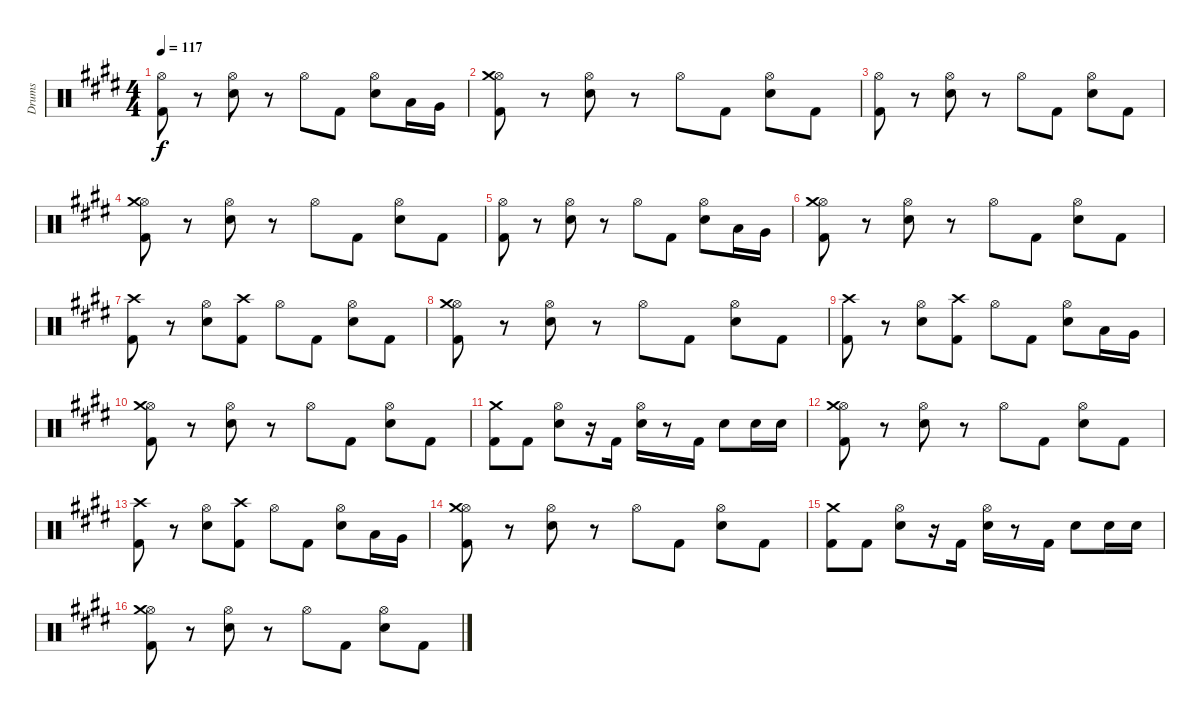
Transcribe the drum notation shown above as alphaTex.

\track ("Drums" "Drums") {instrument percussion}
\staff {score}
\articulation defaults
\ts (4 4)
\tempo 117
\clef neutral
\ks c#minor
("Hi-Hat (open)" "Kick (hit) 2").8{dy f} r.8 ("Hi-Hat (open)" "Snare (hit) 2").8 r.8 "Hi-Hat (open)".8 "Kick (hit) 2".8 ("Hi-Hat (open)" "Snare (hit) 2").8 "Low Tom (hit)".16 "Very Low Tom (hit)".16 |
("Hi-Hat (open)" "Kick (hit) 2" "Crash medium (hit)").8 r.8 ("Hi-Hat (open)" "Snare (hit) 2").8 r.8 "Hi-Hat (open)".8 "Kick (hit) 2".8 ("Hi-Hat (open)" "Snare (hit) 2").8 "Kick (hit) 2".8 |
("Hi-Hat (open)" "Kick (hit) 2").8 r.8 ("Hi-Hat (open)" "Snare (hit) 2").8 r.8 "Hi-Hat (open)".8 "Kick (hit) 2".8 ("Hi-Hat (open)" "Snare (hit) 2").8 "Kick (hit) 2".8 |
("Hi-Hat (open)" "Kick (hit) 2" "Crash medium (hit)").8 r.8 ("Hi-Hat (open)" "Snare (hit) 2").8 r.8 "Hi-Hat (open)".8 "Kick (hit) 2".8 ("Hi-Hat (open)" "Snare (hit) 2").8 "Kick (hit) 2".8 |
("Hi-Hat (open)" "Kick (hit) 2").8 r.8 ("Hi-Hat (open)" "Snare (hit) 2").8 r.8 "Hi-Hat (open)".8 "Kick (hit) 2".8 ("Hi-Hat (open)" "Snare (hit) 2").8 "Low Tom (hit)".16 "Very Low Tom (hit)".16 |
("Hi-Hat (open)" "Kick (hit) 2" "Crash medium (hit)").8 r.8 ("Hi-Hat (open)" "Snare (hit) 2").8 r.8 "Hi-Hat (open)".8 "Kick (hit) 2".8 ("Hi-Hat (open)" "Snare (hit) 2").8 "Kick (hit) 2".8 |
("Kick (hit) 2" "Crash high (hit)").8 r.8 ("Hi-Hat (open)" "Snare (hit) 2").8 ("Crash high (hit)" "Kick (hit) 2").8 "Hi-Hat (open)".8 "Kick (hit) 2".8 ("Hi-Hat (open)" "Snare (hit) 2").8 "Kick (hit) 2".8 |
("Hi-Hat (open)" "Kick (hit) 2" "Crash medium (hit)").8 r.8 ("Hi-Hat (open)" "Snare (hit) 2").8 r.8 "Hi-Hat (open)".8 "Kick (hit) 2".8 ("Hi-Hat (open)" "Snare (hit) 2").8 "Kick (hit) 2".8 |
("Kick (hit) 2" "Crash high (hit)").8 r.8 ("Hi-Hat (open)" "Snare (hit) 2").8 ("Crash high (hit)" "Kick (hit) 2").8 "Hi-Hat (open)".8 "Kick (hit) 2".8 ("Hi-Hat (open)" "Snare (hit) 2").8 "Low Tom (hit)".16 "Very Low Tom (hit)".16 |
("Hi-Hat (open)" "Kick (hit) 2" "Crash medium (hit)").8 r.8 ("Hi-Hat (open)" "Snare (hit) 2").8 r.8 "Hi-Hat (open)".8 "Kick (hit) 2".8 ("Hi-Hat (open)" "Snare (hit) 2").8 "Kick (hit) 2".8 |
("Kick (hit) 2" "Crash medium (hit)").8 "Kick (hit) 2".8 ("Hi-Hat (open)" "Snare (hit) 2").8 r.16 "Kick (hit) 2".16 ("Hi-Hat (open)" "Snare (hit) 2").16 r.8 "Kick (hit) 2".16 "Snare (hit) 2".8 "Snare (hit) 2".16 "Snare (hit) 2".16 |
("Hi-Hat (open)" "Kick (hit) 2" "Crash medium (hit)").8 r.8 ("Hi-Hat (open)" "Snare (hit) 2").8 r.8 "Hi-Hat (open)".8 "Kick (hit) 2".8 ("Hi-Hat (open)" "Snare (hit) 2").8 "Kick (hit) 2".8 |
("Kick (hit) 2" "Crash high (hit)").8 r.8 ("Hi-Hat (open)" "Snare (hit) 2").8 ("Crash high (hit)" "Kick (hit) 2").8 "Hi-Hat (open)".8 "Kick (hit) 2".8 ("Hi-Hat (open)" "Snare (hit) 2").8 "Low Tom (hit)".16 "Very Low Tom (hit)".16 |
("Hi-Hat (open)" "Kick (hit) 2" "Crash medium (hit)").8 r.8 ("Hi-Hat (open)" "Snare (hit) 2").8 r.8 "Hi-Hat (open)".8 "Kick (hit) 2".8 ("Hi-Hat (open)" "Snare (hit) 2").8 "Kick (hit) 2".8 |
("Kick (hit) 2" "Crash medium (hit)").8 "Kick (hit) 2".8 ("Hi-Hat (open)" "Snare (hit) 2").8 r.16 "Kick (hit) 2".16 ("Hi-Hat (open)" "Snare (hit) 2").16 r.8 "Kick (hit) 2".16 "Snare (hit) 2".8 "Snare (hit) 2".16 "Snare (hit) 2".16 |
("Hi-Hat (open)" "Kick (hit) 2" "Crash medium (hit)").8 r.8 ("Hi-Hat (open)" "Snare (hit) 2").8 r.8 "Hi-Hat (open)".8 "Kick (hit) 2".8 ("Hi-Hat (open)" "Snare (hit) 2").8 "Kick (hit) 2".8
